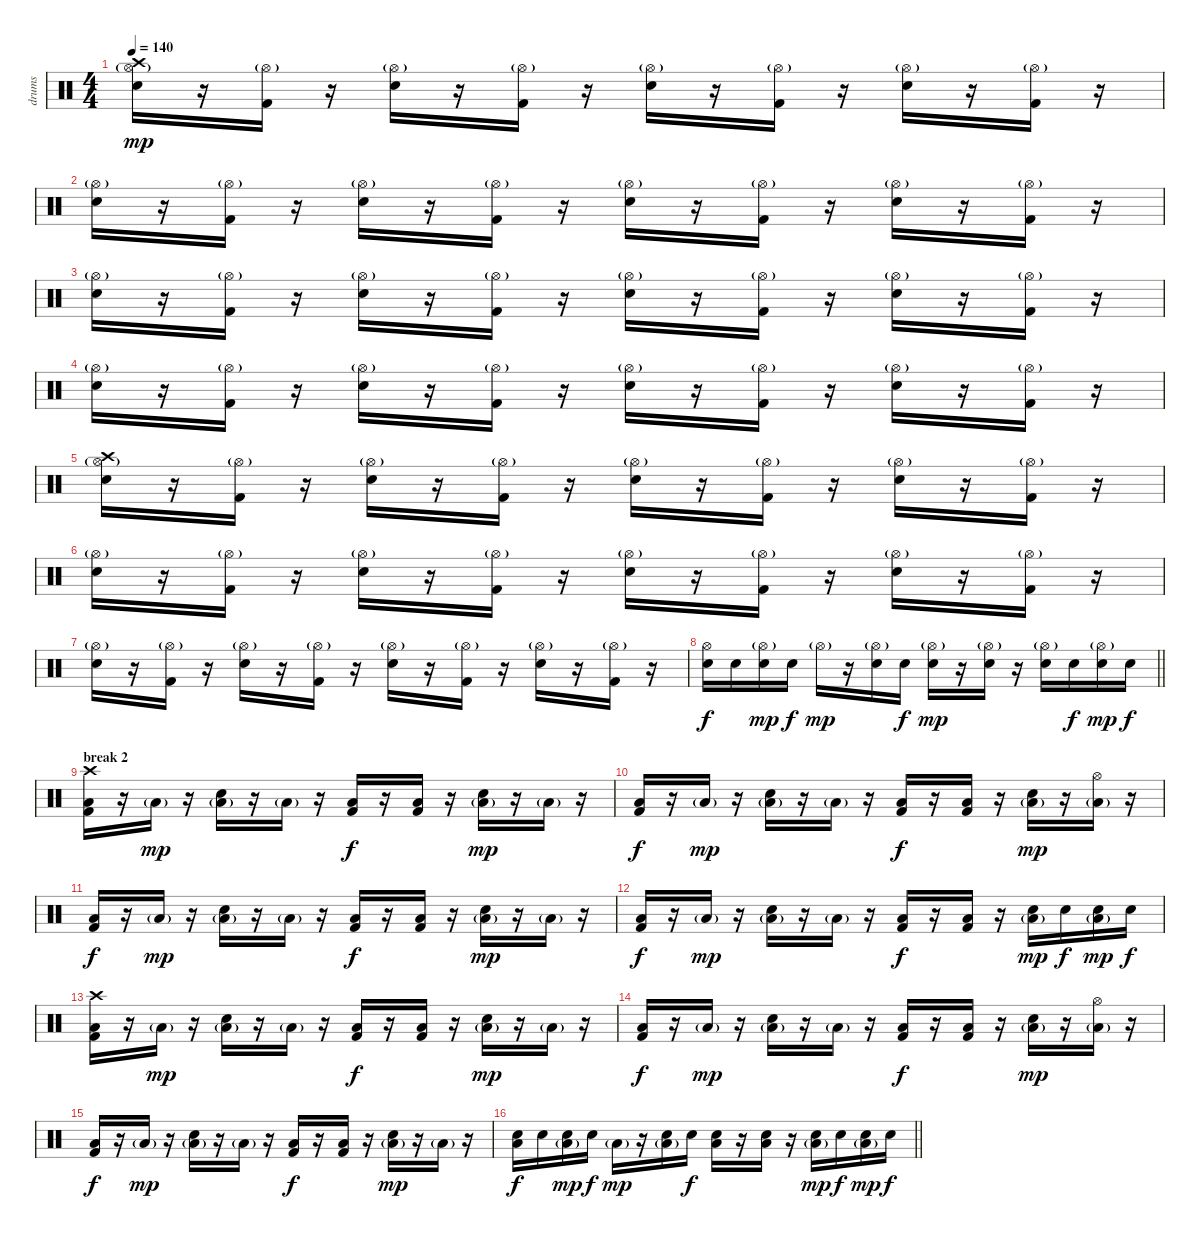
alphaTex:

\track ("drums" "drums") {instrument percussion}
\staff {score}
\articulation defaults
\ts (4 4)
\tempo 140
\clef neutral
\ks c
("Electric Snare (hit)" "Hi-Hat (open)"{g} "Crash high (hit)").16{dy mp} r.16 ("Kick (hit) 2" "Hi-Hat (open)"{g}).16 r.16 ("Electric Snare (hit)" "Hi-Hat (open)"{g}).16 r.16 ("Kick (hit) 2" "Hi-Hat (open)"{g}).16 r.16 ("Electric Snare (hit)" "Hi-Hat (open)"{g}).16 r.16 ("Kick (hit) 2" "Hi-Hat (open)"{g}).16 r.16 ("Electric Snare (hit)" "Hi-Hat (open)"{g}).16 r.16 ("Kick (hit) 2" "Hi-Hat (open)"{g}).16 r.16 |
("Electric Snare (hit)" "Hi-Hat (open)"{g}).16 r.16 ("Kick (hit) 2" "Hi-Hat (open)"{g}).16 r.16 ("Electric Snare (hit)" "Hi-Hat (open)"{g}).16 r.16 ("Kick (hit) 2" "Hi-Hat (open)"{g}).16 r.16 ("Electric Snare (hit)" "Hi-Hat (open)"{g}).16 r.16 ("Kick (hit) 2" "Hi-Hat (open)"{g}).16 r.16 ("Electric Snare (hit)" "Hi-Hat (open)"{g}).16 r.16 ("Kick (hit) 2" "Hi-Hat (open)"{g}).16 r.16 |
("Electric Snare (hit)" "Hi-Hat (open)"{g}).16 r.16 ("Kick (hit) 2" "Hi-Hat (open)"{g}).16 r.16 ("Electric Snare (hit)" "Hi-Hat (open)"{g}).16 r.16 ("Kick (hit) 2" "Hi-Hat (open)"{g}).16 r.16 ("Electric Snare (hit)" "Hi-Hat (open)"{g}).16 r.16 ("Kick (hit) 2" "Hi-Hat (open)"{g}).16 r.16 ("Electric Snare (hit)" "Hi-Hat (open)"{g}).16 r.16 ("Kick (hit) 2" "Hi-Hat (open)"{g}).16 r.16 |
("Electric Snare (hit)" "Hi-Hat (open)"{g}).16 r.16 ("Kick (hit) 2" "Hi-Hat (open)"{g}).16 r.16 ("Electric Snare (hit)" "Hi-Hat (open)"{g}).16 r.16 ("Kick (hit) 2" "Hi-Hat (open)"{g}).16 r.16 ("Electric Snare (hit)" "Hi-Hat (open)"{g}).16 r.16 ("Kick (hit) 2" "Hi-Hat (open)"{g}).16 r.16 ("Electric Snare (hit)" "Hi-Hat (open)"{g}).16 r.16 ("Kick (hit) 2" "Hi-Hat (open)"{g}).16 r.16 |
("Electric Snare (hit)" "Hi-Hat (open)"{g} "Crash high (hit)").16 r.16 ("Kick (hit) 2" "Hi-Hat (open)"{g}).16 r.16 ("Electric Snare (hit)" "Hi-Hat (open)"{g}).16 r.16 ("Kick (hit) 2" "Hi-Hat (open)"{g}).16 r.16 ("Electric Snare (hit)" "Hi-Hat (open)"{g}).16 r.16 ("Kick (hit) 2" "Hi-Hat (open)"{g}).16 r.16 ("Electric Snare (hit)" "Hi-Hat (open)"{g}).16 r.16 ("Kick (hit) 2" "Hi-Hat (open)"{g}).16 r.16 |
("Electric Snare (hit)" "Hi-Hat (open)"{g}).16 r.16 ("Kick (hit) 2" "Hi-Hat (open)"{g}).16 r.16 ("Electric Snare (hit)" "Hi-Hat (open)"{g}).16 r.16 ("Kick (hit) 2" "Hi-Hat (open)"{g}).16 r.16 ("Electric Snare (hit)" "Hi-Hat (open)"{g}).16 r.16 ("Kick (hit) 2" "Hi-Hat (open)"{g}).16 r.16 ("Electric Snare (hit)" "Hi-Hat (open)"{g}).16 r.16 ("Kick (hit) 2" "Hi-Hat (open)"{g}).16 r.16 |
("Electric Snare (hit)" "Hi-Hat (open)"{g}).16 r.16 ("Kick (hit) 2" "Hi-Hat (open)"{g}).16 r.16 ("Electric Snare (hit)" "Hi-Hat (open)"{g}).16 r.16 ("Kick (hit) 2" "Hi-Hat (open)"{g}).16 r.16 ("Electric Snare (hit)" "Hi-Hat (open)"{g}).16 r.16 ("Kick (hit) 2" "Hi-Hat (open)"{g}).16 r.16 ("Electric Snare (hit)" "Hi-Hat (open)"{g}).16 r.16 ("Kick (hit) 2" "Hi-Hat (open)"{g}).16 r.16 |
\barLineRight lightlight
("Electric Snare (hit)" "Hi-Hat (open)").16{dy f} "Electric Snare (hit)".16 ("Electric Snare (hit)" "Hi-Hat (open)"{g}).16{dy mp} "Electric Snare (hit)".16{dy f} "Hi-Hat (open)"{g}.16{dy mp} r.16 ("Electric Snare (hit)" "Hi-Hat (open)"{g}).16 "Electric Snare (hit)".16{dy f} ("Electric Snare (hit)" "Hi-Hat (open)"{g}).16{dy mp} r.16 ("Electric Snare (hit)" "Hi-Hat (open)"{g}).16 r.16 ("Electric Snare (hit)" "Hi-Hat (open)"{g}).16 "Electric Snare (hit)".16{dy f} ("Electric Snare (hit)" "Hi-Hat (open)"{g}).16{dy mp} "Electric Snare (hit)".16{dy f} |
\section ("" "break 2")
("Kick (hit) 2" "Low Floor Tom (hit)" "Crash high (hit)").16 r.16 "Low Floor Tom (hit)"{g}.16{dy mp} r.16 ("Electric Snare (hit)" "Low Floor Tom (hit)"{g}).16 r.16 "Low Floor Tom (hit)"{g}.16 r.16 ("Kick (hit) 2" "Low Floor Tom (hit)").16{dy f} r.16 ("Kick (hit) 2" "Low Floor Tom (hit)").16 r.16 ("Electric Snare (hit)" "Low Floor Tom (hit)"{g}).16{dy mp} r.16 "Low Floor Tom (hit)"{g}.16 r.16 |
("Kick (hit) 2" "Low Floor Tom (hit)").16{dy f} r.16 "Low Floor Tom (hit)"{g}.16{dy mp} r.16 ("Electric Snare (hit)" "Low Floor Tom (hit)"{g}).16 r.16 "Low Floor Tom (hit)"{g}.16 r.16 ("Kick (hit) 2" "Low Floor Tom (hit)").16{dy f} r.16 ("Kick (hit) 2" "Low Floor Tom (hit)").16 r.16 ("Electric Snare (hit)" "Low Floor Tom (hit)"{g}).16{dy mp} r.16 ("Hi-Hat (open)" "Low Floor Tom (hit)"{g}).16 r.16 |
("Kick (hit) 2" "Low Floor Tom (hit)").16{dy f} r.16 "Low Floor Tom (hit)"{g}.16{dy mp} r.16 ("Electric Snare (hit)" "Low Floor Tom (hit)"{g}).16 r.16 "Low Floor Tom (hit)"{g}.16 r.16 ("Kick (hit) 2" "Low Floor Tom (hit)").16{dy f} r.16 ("Kick (hit) 2" "Low Floor Tom (hit)").16 r.16 ("Electric Snare (hit)" "Low Floor Tom (hit)"{g}).16{dy mp} r.16 "Low Floor Tom (hit)"{g}.16 r.16 |
("Kick (hit) 2" "Low Floor Tom (hit)").16{dy f} r.16 "Low Floor Tom (hit)"{g}.16{dy mp} r.16 ("Electric Snare (hit)" "Low Floor Tom (hit)"{g}).16 r.16 "Low Floor Tom (hit)"{g}.16 r.16 ("Kick (hit) 2" "Low Floor Tom (hit)").16{dy f} r.16 ("Kick (hit) 2" "Low Floor Tom (hit)").16 r.16 ("Electric Snare (hit)" "Low Floor Tom (hit)"{g}).16{dy mp} "Electric Snare (hit)".16{dy f} ("Electric Snare (hit)" "Low Floor Tom (hit)"{g}).16{dy mp} "Electric Snare (hit)".16{dy f} |
("Kick (hit) 2" "Low Floor Tom (hit)" "Crash high (hit)").16 r.16 "Low Floor Tom (hit)"{g}.16{dy mp} r.16 ("Electric Snare (hit)" "Low Floor Tom (hit)"{g}).16 r.16 "Low Floor Tom (hit)"{g}.16 r.16 ("Kick (hit) 2" "Low Floor Tom (hit)").16{dy f} r.16 ("Kick (hit) 2" "Low Floor Tom (hit)").16 r.16 ("Electric Snare (hit)" "Low Floor Tom (hit)"{g}).16{dy mp} r.16 "Low Floor Tom (hit)"{g}.16 r.16 |
("Kick (hit) 2" "Low Floor Tom (hit)").16{dy f} r.16 "Low Floor Tom (hit)"{g}.16{dy mp} r.16 ("Electric Snare (hit)" "Low Floor Tom (hit)"{g}).16 r.16 "Low Floor Tom (hit)"{g}.16 r.16 ("Kick (hit) 2" "Low Floor Tom (hit)").16{dy f} r.16 ("Kick (hit) 2" "Low Floor Tom (hit)").16 r.16 ("Electric Snare (hit)" "Low Floor Tom (hit)"{g}).16{dy mp} r.16 ("Hi-Hat (open)" "Low Floor Tom (hit)"{g}).16 r.16 |
("Kick (hit) 2" "Low Floor Tom (hit)").16{dy f} r.16 "Low Floor Tom (hit)"{g}.16{dy mp} r.16 ("Electric Snare (hit)" "Low Floor Tom (hit)"{g}).16 r.16 "Low Floor Tom (hit)"{g}.16 r.16 ("Kick (hit) 2" "Low Floor Tom (hit)").16{dy f} r.16 ("Kick (hit) 2" "Low Floor Tom (hit)").16 r.16 ("Electric Snare (hit)" "Low Floor Tom (hit)"{g}).16{dy mp} r.16 "Low Floor Tom (hit)"{g}.16 r.16 |
\barLineRight lightlight
("Electric Snare (hit)" "Low Floor Tom (hit)").16{dy f} "Electric Snare (hit)".16 ("Electric Snare (hit)" "Low Floor Tom (hit)"{g}).16{dy mp} "Electric Snare (hit)".16{dy f} "Low Floor Tom (hit)"{g}.16{dy mp} r.16 ("Electric Snare (hit)" "Low Floor Tom (hit)"{g}).16 "Electric Snare (hit)".16{dy f} ("Electric Snare (hit)" "Low Floor Tom (hit)").16 r.16 ("Electric Snare (hit)" "Low Floor Tom (hit)").16 r.16 ("Electric Snare (hit)" "Low Floor Tom (hit)"{g}).16{dy mp} "Electric Snare (hit)".16{dy f} ("Electric Snare (hit)" "Low Floor Tom (hit)"{g}).16{dy mp} "Electric Snare (hit)".16{dy f}
